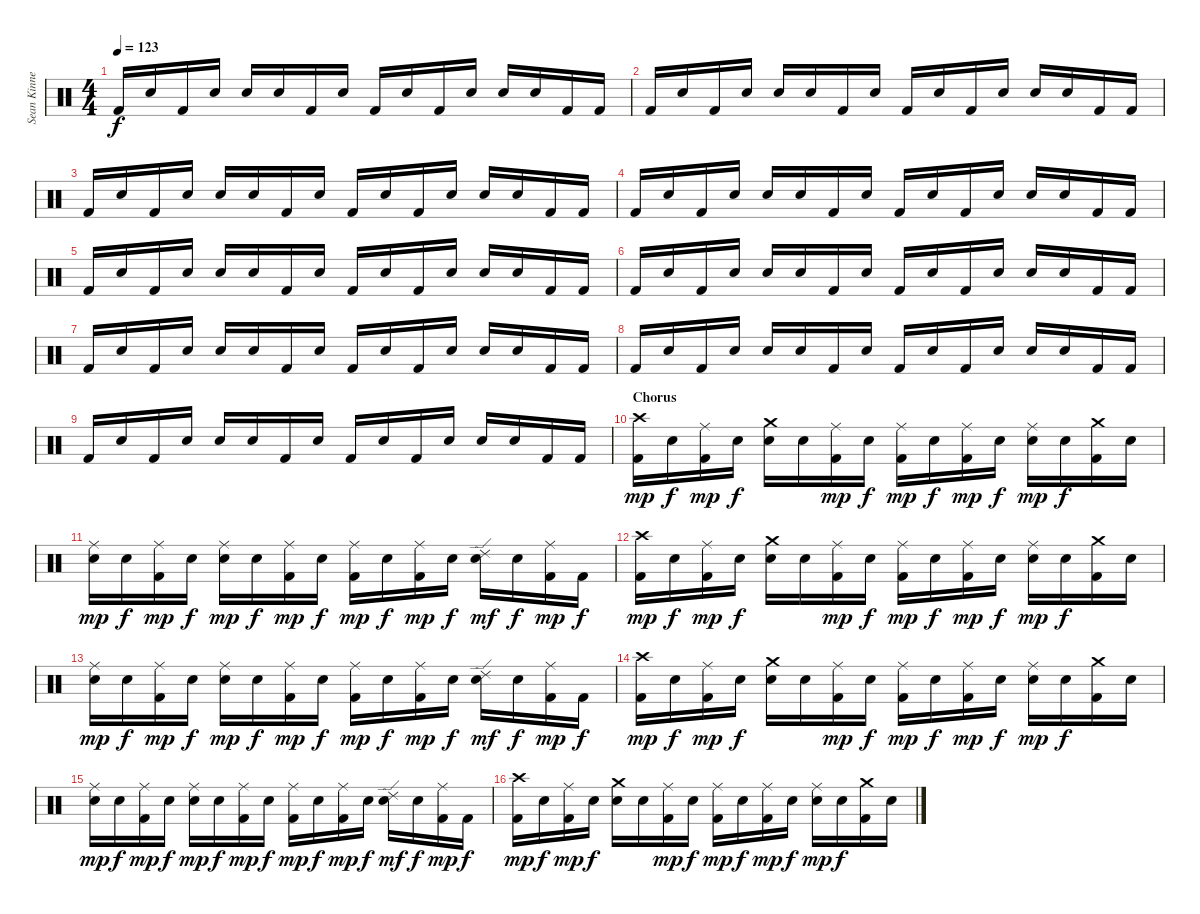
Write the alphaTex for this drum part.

\track ("Sean Kinney - Drums" "Sean Kinne") {instrument percussion}
\staff {score}
\articulation defaults
\ts (4 4)
\tempo 123
\clef neutral
\ks c "Kick (hit) 2".16{dy f} "Snare (hit)".16 "Kick (hit) 2".16 "Snare (hit)".16 "Electric Snare (hit)".16 "Snare (hit)".16 "Kick (hit) 2".16 "Snare (hit)".16 "Kick (hit) 2".16 "Snare (hit)".16 "Kick (hit) 2".16 "Snare (hit)".16 "Electric Snare (hit)".16 "Snare (hit)".16 "Kick (hit) 2".16 "Kick (hit) 2".16
|
"Kick (hit) 2".16 "Snare (hit)".16 "Kick (hit) 2".16 "Snare (hit)".16 "Electric Snare (hit)".16 "Snare (hit)".16 "Kick (hit) 2".16 "Snare (hit)".16 "Kick (hit) 2".16 "Snare (hit)".16 "Kick (hit) 2".16 "Snare (hit)".16 "Electric Snare (hit)".16 "Snare (hit)".16 "Kick (hit) 2".16 "Kick (hit) 2".16 |
"Kick (hit) 2".16 "Snare (hit)".16 "Kick (hit) 2".16 "Snare (hit)".16 "Electric Snare (hit)".16 "Snare (hit)".16 "Kick (hit) 2".16 "Snare (hit)".16 "Kick (hit) 2".16 "Snare (hit)".16 "Kick (hit) 2".16 "Snare (hit)".16 "Electric Snare (hit)".16 "Snare (hit)".16 "Kick (hit) 2".16 "Kick (hit) 2".16 |
"Kick (hit) 2".16 "Snare (hit)".16 "Kick (hit) 2".16 "Snare (hit)".16 "Electric Snare (hit)".16 "Snare (hit)".16 "Kick (hit) 2".16 "Snare (hit)".16 "Kick (hit) 2".16 "Snare (hit)".16 "Kick (hit) 2".16 "Snare (hit)".16 "Electric Snare (hit)".16 "Snare (hit)".16 "Kick (hit) 2".16 "Kick (hit) 2".16 |
"Kick (hit) 2".16 "Snare (hit)".16 "Kick (hit) 2".16 "Snare (hit)".16 "Electric Snare (hit)".16 "Snare (hit)".16 "Kick (hit) 2".16 "Snare (hit)".16 "Kick (hit) 2".16 "Snare (hit)".16 "Kick (hit) 2".16 "Snare (hit)".16 "Electric Snare (hit)".16 "Snare (hit)".16 "Kick (hit) 2".16 "Kick (hit) 2".16 |
"Kick (hit) 2".16 "Snare (hit)".16 "Kick (hit) 2".16 "Snare (hit)".16 "Electric Snare (hit)".16 "Snare (hit)".16 "Kick (hit) 2".16 "Snare (hit)".16 "Kick (hit) 2".16 "Snare (hit)".16 "Kick (hit) 2".16 "Snare (hit)".16 "Electric Snare (hit)".16 "Snare (hit)".16 "Kick (hit) 2".16 "Kick (hit) 2".16 |
"Kick (hit) 2".16 "Snare (hit)".16 "Kick (hit) 2".16 "Snare (hit)".16 "Electric Snare (hit)".16 "Snare (hit)".16 "Kick (hit) 2".16 "Snare (hit)".16 "Kick (hit) 2".16 "Snare (hit)".16 "Kick (hit) 2".16 "Snare (hit)".16 "Electric Snare (hit)".16 "Snare (hit)".16 "Kick (hit) 2".16 "Kick (hit) 2".16 |
"Kick (hit) 2".16 "Snare (hit)".16 "Kick (hit) 2".16 "Snare (hit)".16 "Electric Snare (hit)".16 "Snare (hit)".16 "Kick (hit) 2".16 "Snare (hit)".16 "Kick (hit) 2".16 "Snare (hit)".16 "Kick (hit) 2".16 "Snare (hit)".16 "Electric Snare (hit)".16 "Snare (hit)".16 "Kick (hit) 2".16 "Kick (hit) 2".16 |
"Kick (hit) 2".16 "Snare (hit)".16 "Kick (hit) 2".16 "Snare (hit)".16 "Electric Snare (hit)".16 "Snare (hit)".16 "Kick (hit) 2".16 "Snare (hit)".16 "Kick (hit) 2".16 "Snare (hit)".16 "Kick (hit) 2".16 "Snare (hit)".16 "Electric Snare (hit)".16 "Snare (hit)".16 "Kick (hit) 2".16 "Kick (hit) 2".16 |
\section ("" "Chorus")
("Crash high (hit)" "Kick (hit) 2").16{dy mp volume 16 balance 8} "Snare (hit)".16{dy f} ("Ride (middle)" "Kick (hit) 2").16{dy mp} "Snare (hit)".16{dy f} ("Crash medium (hit)" "Electric Snare (hit)").16 "Snare (hit)".16 ("Ride (middle)" "Kick (hit) 2").16{dy mp} "Snare (hit)".16{dy f} ("Ride (middle)" "Kick (hit) 2").16{dy mp} "Snare (hit)".16{dy f} ("Ride (middle)" "Kick (hit) 2").16{dy mp} "Snare (hit)".16{dy f} ("Ride (middle)" "Electric Snare (hit)").16{dy mp} "Snare (hit)".16{dy f} ("Crash medium (hit)" "Kick (hit) 2").16 "Snare (hit)".16 |
("Ride (middle)" "Snare (hit)").16{dy mp} "Snare (hit)".16{dy f} ("Ride (middle)" "Kick (hit) 2").16{dy mp} "Snare (hit)".16{dy f} ("Ride (middle)" "Electric Snare (hit)").16{dy mp} "Snare (hit)".16{dy f} ("Ride (middle)" "Kick (hit) 2").16{dy mp} "Snare (hit)".16{dy f} ("Ride (middle)" "Kick (hit) 2").16{dy mp} "Snare (hit)".16{dy f} ("Ride (middle)" "Kick (hit) 2").16{dy mp} "Snare (hit)".16{dy f} ("Ride (edge) 2" "Electric Snare (hit)").16{dy mf} "Snare (hit)".16{dy f} ("Ride (middle)" "Kick (hit) 2").16{dy mp} "Kick (hit) 2".16{dy f} |
("Crash high (hit)" "Kick (hit) 2").16{dy mp volume 16 balance 8} "Snare (hit)".16{dy f} ("Ride (middle)" "Kick (hit) 2").16{dy mp} "Snare (hit)".16{dy f} ("Crash medium (hit)" "Electric Snare (hit)").16 "Snare (hit)".16 ("Ride (middle)" "Kick (hit) 2").16{dy mp} "Snare (hit)".16{dy f} ("Ride (middle)" "Kick (hit) 2").16{dy mp} "Snare (hit)".16{dy f} ("Ride (middle)" "Kick (hit) 2").16{dy mp} "Snare (hit)".16{dy f} ("Ride (middle)" "Electric Snare (hit)").16{dy mp} "Snare (hit)".16{dy f} ("Crash medium (hit)" "Kick (hit) 2").16 "Snare (hit)".16 |
("Ride (middle)" "Snare (hit)").16{dy mp} "Snare (hit)".16{dy f} ("Ride (middle)" "Kick (hit) 2").16{dy mp} "Snare (hit)".16{dy f} ("Ride (middle)" "Electric Snare (hit)").16{dy mp} "Snare (hit)".16{dy f} ("Ride (middle)" "Kick (hit) 2").16{dy mp} "Snare (hit)".16{dy f} ("Ride (middle)" "Kick (hit) 2").16{dy mp} "Snare (hit)".16{dy f} ("Ride (middle)" "Kick (hit) 2").16{dy mp} "Snare (hit)".16{dy f} ("Ride (edge) 2" "Electric Snare (hit)").16{dy mf} "Snare (hit)".16{dy f} ("Ride (middle)" "Kick (hit) 2").16{dy mp} "Kick (hit) 2".16{dy f} |
("Crash high (hit)" "Kick (hit) 2").16{dy mp} "Snare (hit)".16{dy f} ("Ride (middle)" "Kick (hit) 2").16{dy mp} "Snare (hit)".16{dy f} ("Crash medium (hit)" "Electric Snare (hit)").16 "Snare (hit)".16 ("Ride (middle)" "Kick (hit) 2").16{dy mp} "Snare (hit)".16{dy f} ("Ride (middle)" "Kick (hit) 2").16{dy mp} "Snare (hit)".16{dy f} ("Ride (middle)" "Kick (hit) 2").16{dy mp} "Snare (hit)".16{dy f} ("Ride (middle)" "Electric Snare (hit)").16{dy mp} "Snare (hit)".16{dy f} ("Crash medium (hit)" "Kick (hit) 2").16 "Snare (hit)".16 |
("Ride (middle)" "Snare (hit)").16{dy mp} "Snare (hit)".16{dy f} ("Ride (middle)" "Kick (hit) 2").16{dy mp} "Snare (hit)".16{dy f} ("Ride (middle)" "Electric Snare (hit)").16{dy mp} "Snare (hit)".16{dy f} ("Ride (middle)" "Kick (hit) 2").16{dy mp} "Snare (hit)".16{dy f} ("Ride (middle)" "Kick (hit) 2").16{dy mp} "Snare (hit)".16{dy f} ("Ride (middle)" "Kick (hit) 2").16{dy mp} "Snare (hit)".16{dy f} ("Ride (edge) 2" "Electric Snare (hit)").16{dy mf} "Snare (hit)".16{dy f} ("Ride (middle)" "Kick (hit) 2").16{dy mp} "Kick (hit) 2".16{dy f} |
("Crash high (hit)" "Kick (hit) 2").16{dy mp} "Snare (hit)".16{dy f} ("Ride (middle)" "Kick (hit) 2").16{dy mp} "Snare (hit)".16{dy f} ("Crash medium (hit)" "Electric Snare (hit)").16 "Snare (hit)".16 ("Ride (middle)" "Kick (hit) 2").16{dy mp} "Snare (hit)".16{dy f} ("Ride (middle)" "Kick (hit) 2").16{dy mp} "Snare (hit)".16{dy f} ("Ride (middle)" "Kick (hit) 2").16{dy mp} "Snare (hit)".16{dy f} ("Ride (middle)" "Electric Snare (hit)").16{dy mp} "Snare (hit)".16{dy f} ("Crash medium (hit)" "Kick (hit) 2").16 "Snare (hit)".16
